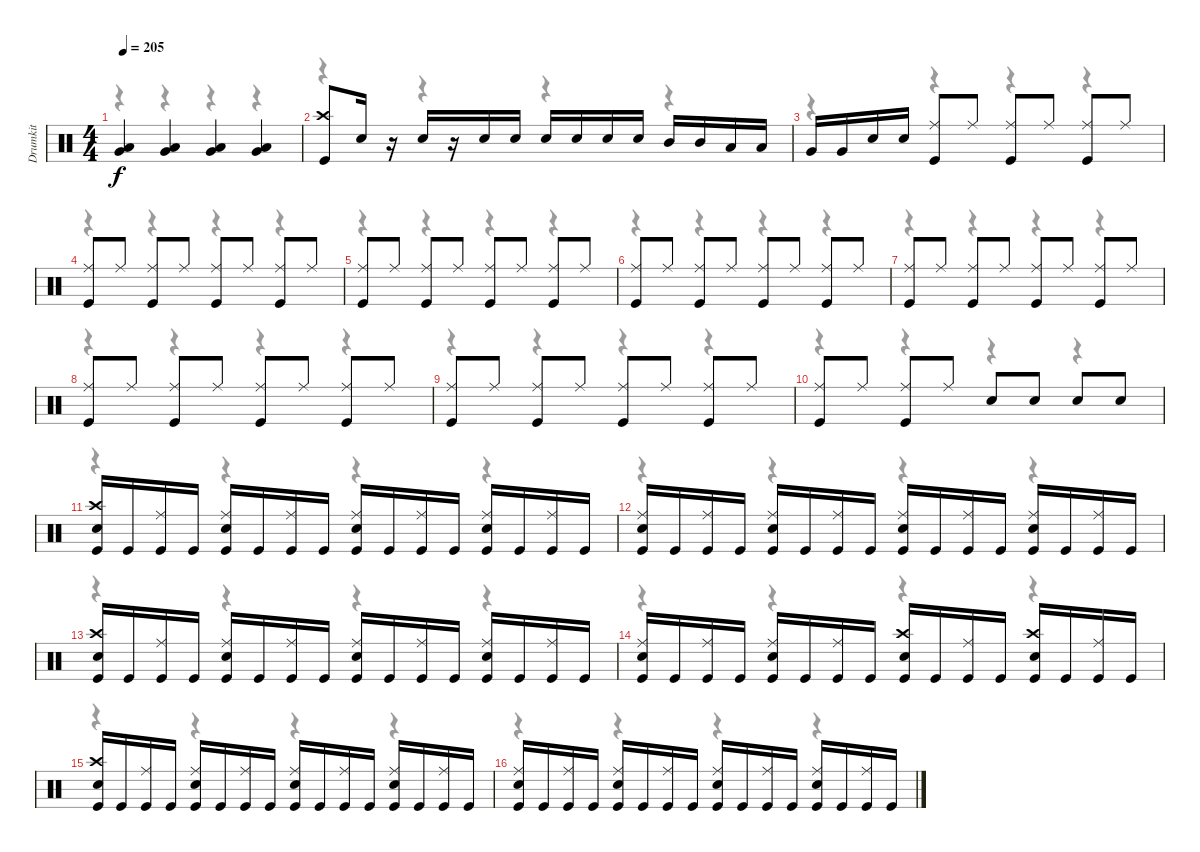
\track ("Drumkit" "Drumkit") {instrument percussion}
\staff {score}
\articulation defaults
\voice
\ts (4 4)
\tempo 205
\clef neutral
\ks c
("Very Low Tom (hit)" "Low Floor Tom (hit)").4{dy f} ("Very Low Tom (hit)" "Low Floor Tom (hit)").4 ("Very Low Tom (hit)" "Low Floor Tom (hit)").4 ("Very Low Tom (hit)" "Low Floor Tom (hit)").4 |
("Crash high (hit)" "Kick (hit)").8 "Snare (hit) 2".16 r.16 "Snare (hit) 2".16 r.16 "Snare (hit) 2".16 "Snare (hit) 2".16 "Snare (hit) 2".16 "Snare (hit) 2".16 "Snare (hit) 2".16 "Snare (hit) 2".16 "Mid Tom (hit)".16 "Mid Tom (hit)".16 "Low Tom (hit)".16 "Low Tom (hit)".16 |
"Very Low Tom (hit)".16 "Very Low Tom (hit)".16 "Snare (hit) 2".16 "Snare (hit) 2".16 ("Ride (middle)" "Kick (hit)").8 "Ride (middle)".8 ("Ride (middle)" "Kick (hit)").8 "Ride (middle)".8 ("Ride (middle)" "Kick (hit)").8 "Ride (middle)".8 |
("Ride (middle)" "Kick (hit)").8 "Ride (middle)".8 ("Ride (middle)" "Kick (hit)").8 "Ride (middle)".8 ("Ride (middle)" "Kick (hit)").8 "Ride (middle)".8 ("Ride (middle)" "Kick (hit)").8 "Ride (middle)".8 |
("Ride (middle)" "Kick (hit)").8 "Ride (middle)".8 ("Ride (middle)" "Kick (hit)").8 "Ride (middle)".8 ("Ride (middle)" "Kick (hit)").8 "Ride (middle)".8 ("Ride (middle)" "Kick (hit)").8 "Ride (middle)".8 |
("Ride (middle)" "Kick (hit)").8 "Ride (middle)".8 ("Ride (middle)" "Kick (hit)").8 "Ride (middle)".8 ("Ride (middle)" "Kick (hit)").8 "Ride (middle)".8 ("Ride (middle)" "Kick (hit)").8 "Ride (middle)".8 |
("Ride (middle)" "Kick (hit)").8 "Ride (middle)".8 ("Ride (middle)" "Kick (hit)").8 "Ride (middle)".8 ("Ride (middle)" "Kick (hit)").8 "Ride (middle)".8 ("Ride (middle)" "Kick (hit)").8 "Ride (middle)".8 |
("Ride (middle)" "Kick (hit)").8 "Ride (middle)".8 ("Ride (middle)" "Kick (hit)").8 "Ride (middle)".8 ("Ride (middle)" "Kick (hit)").8 "Ride (middle)".8 ("Ride (middle)" "Kick (hit)").8 "Ride (middle)".8 |
("Ride (middle)" "Kick (hit)").8 "Ride (middle)".8 ("Ride (middle)" "Kick (hit)").8 "Ride (middle)".8 ("Ride (middle)" "Kick (hit)").8 "Ride (middle)".8 ("Ride (middle)" "Kick (hit)").8 "Ride (middle)".8 |
("Ride (middle)" "Kick (hit)").8 "Ride (middle)".8 ("Ride (middle)" "Kick (hit)").8 "Ride (middle)".8 "Snare (hit) 2".8 "Snare (hit) 2".8 "Snare (hit) 2".8 "Snare (hit) 2".8 |
("Crash high (hit)" "Snare (hit) 2" "Kick (hit)").16 "Kick (hit)".16 ("Ride (middle)" "Kick (hit)").16 "Kick (hit)".16 ("Ride (middle)" "Snare (hit) 2" "Kick (hit)").16 "Kick (hit)".16 ("Ride (middle)" "Kick (hit)").16 "Kick (hit)".16 ("Ride (middle)" "Snare (hit) 2" "Kick (hit)").16 "Kick (hit)".16 ("Ride (middle)" "Kick (hit)").16 "Kick (hit)".16 ("Ride (middle)" "Snare (hit) 2" "Kick (hit)").16 "Kick (hit)".16 ("Ride (middle)" "Kick (hit)").16 "Kick (hit)".16 |
("Ride (middle)" "Snare (hit) 2" "Kick (hit)").16 "Kick (hit)".16 ("Ride (middle)" "Kick (hit)").16 "Kick (hit)".16 ("Ride (middle)" "Snare (hit) 2" "Kick (hit)").16 "Kick (hit)".16 ("Ride (middle)" "Kick (hit)").16 "Kick (hit)".16 ("Ride (middle)" "Snare (hit) 2" "Kick (hit)").16 "Kick (hit)".16 ("Ride (middle)" "Kick (hit)").16 "Kick (hit)".16 ("Ride (middle)" "Snare (hit) 2" "Kick (hit)").16 "Kick (hit)".16 ("Ride (middle)" "Kick (hit)").16 "Kick (hit)".16 |
("Crash high (hit)" "Snare (hit) 2" "Kick (hit)").16 "Kick (hit)".16 ("Ride (middle)" "Kick (hit)").16 "Kick (hit)".16 ("Ride (middle)" "Snare (hit) 2" "Kick (hit)").16 "Kick (hit)".16 ("Ride (middle)" "Kick (hit)").16 "Kick (hit)".16 ("Ride (middle)" "Snare (hit) 2" "Kick (hit)").16 "Kick (hit)".16 ("Ride (middle)" "Kick (hit)").16 "Kick (hit)".16 ("Ride (middle)" "Snare (hit) 2" "Kick (hit)").16 "Kick (hit)".16 ("Ride (middle)" "Kick (hit)").16 "Kick (hit)".16 |
("Ride (middle)" "Snare (hit) 2" "Kick (hit)").16 "Kick (hit)".16 ("Ride (middle)" "Kick (hit)").16 "Kick (hit)".16 ("Ride (middle)" "Snare (hit) 2" "Kick (hit)").16 "Kick (hit)".16 ("Ride (middle)" "Kick (hit)").16 "Kick (hit)".16 ("Crash high (hit)" "Snare (hit) 2" "Kick (hit)").16 "Kick (hit)".16 ("Ride (middle)" "Kick (hit)").16 "Kick (hit)".16 ("Crash high (hit)" "Snare (hit) 2" "Kick (hit)").16 "Kick (hit)".16 ("Ride (middle)" "Kick (hit)").16 "Kick (hit)".16 |
("Crash high (hit)" "Snare (hit) 2" "Kick (hit)").16 "Kick (hit)".16 ("Ride (middle)" "Kick (hit)").16 "Kick (hit)".16 ("Ride (middle)" "Snare (hit) 2" "Kick (hit)").16 "Kick (hit)".16 ("Ride (middle)" "Kick (hit)").16 "Kick (hit)".16 ("Ride (middle)" "Snare (hit) 2" "Kick (hit)").16 "Kick (hit)".16 ("Ride (middle)" "Kick (hit)").16 "Kick (hit)".16 ("Ride (middle)" "Snare (hit) 2" "Kick (hit)").16 "Kick (hit)".16 ("Ride (middle)" "Kick (hit)").16 "Kick (hit)".16 |
("Ride (middle)" "Snare (hit) 2" "Kick (hit)").16 "Kick (hit)".16 ("Ride (middle)" "Kick (hit)").16 "Kick (hit)".16 ("Ride (middle)" "Snare (hit) 2" "Kick (hit)").16 "Kick (hit)".16 ("Ride (middle)" "Kick (hit)").16 "Kick (hit)".16 ("Ride (middle)" "Snare (hit) 2" "Kick (hit)").16 "Kick (hit)".16 ("Ride (middle)" "Kick (hit)").16 "Kick (hit)".16 ("Ride (middle)" "Snare (hit) 2" "Kick (hit)").16 "Kick (hit)".16 ("Ride (middle)" "Kick (hit)").16 "Kick (hit)".16
\voice
\clef neutral
\ottava regular
\simile none
\ks c
r.4{dy f} r.4 r.4 r.4 |
r.4 r.4 r.4 r.4 |
r.4 r.4 r.4 r.4 |
r.4 r.4 r.4 r.4 |
r.4 r.4 r.4 r.4 |
r.4 r.4 r.4 r.4 |
r.4 r.4 r.4 r.4 |
r.4 r.4 r.4 r.4 |
r.4 r.4 r.4 r.4 |
r.4 r.4 r.4 r.4 |
r.4 r.4 r.4 r.4 |
r.4 r.4 r.4 r.4 |
r.4 r.4 r.4 r.4 |
r.4 r.4 r.4 r.4 |
r.4 r.4 r.4 r.4 |
r.4 r.4 r.4 r.4
